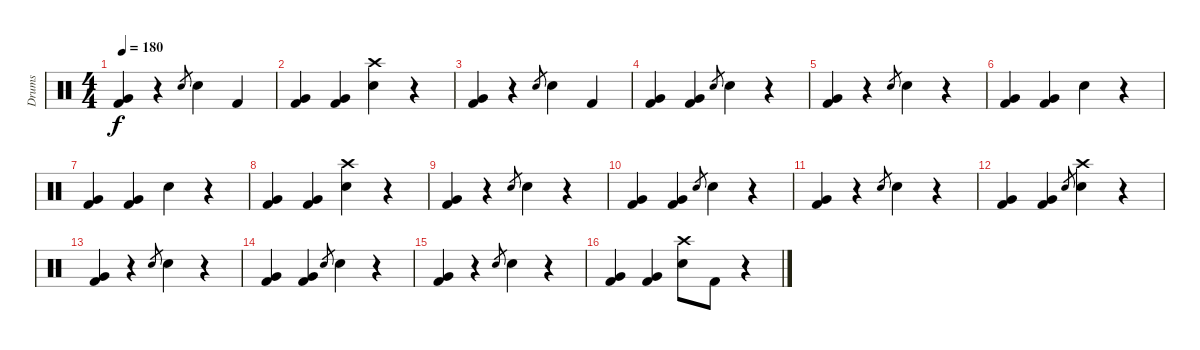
\track ("Drums" "Drums") {instrument percussion}
\staff {score}
\articulation defaults
\ts (4 4)
\tempo 180
\clef neutral
\ks c
("Very Low Tom (hit)" "Kick (hit) 2").4{dy f} r.4 "Electric Snare (hit)".8{gr} "Electric Snare (hit)".4 "Kick (hit) 2".4 |
("Very Low Tom (hit)" "Kick (hit) 2").4 ("Very Low Tom (hit)" "Kick (hit) 2").4 ("Crash high (hit)" "Electric Snare (hit)").4 r.4 |
("Very Low Tom (hit)" "Kick (hit) 2").4 r.4 "Electric Snare (hit)".8{gr} "Electric Snare (hit)".4 "Kick (hit) 2".4 |
("Very Low Tom (hit)" "Kick (hit) 2").4 ("Very Low Tom (hit)" "Kick (hit) 2").4 "Electric Snare (hit)".8{gr} "Electric Snare (hit)".4 r.4 |
("Very Low Tom (hit)" "Kick (hit) 2").4 r.4 "Electric Snare (hit)".8{gr} "Electric Snare (hit)".4 r.4 |
("Very Low Tom (hit)" "Kick (hit) 2").4 ("Very Low Tom (hit)" "Kick (hit) 2").4 "Electric Snare (hit)".4 r.4 |
("Very Low Tom (hit)" "Kick (hit) 2").4 ("Very Low Tom (hit)" "Kick (hit) 2").4 "Electric Snare (hit)".4 r.4 |
("Very Low Tom (hit)" "Kick (hit) 2").4 ("Very Low Tom (hit)" "Kick (hit) 2").4 ("Crash high (hit)" "Electric Snare (hit)").4 r.4 |
("Very Low Tom (hit)" "Kick (hit) 2").4 r.4 "Electric Snare (hit)".8{gr} "Electric Snare (hit)".4 r.4 |
("Very Low Tom (hit)" "Kick (hit) 2").4 ("Very Low Tom (hit)" "Kick (hit) 2").4 "Electric Snare (hit)".8{gr} "Electric Snare (hit)".4 r.4 |
("Very Low Tom (hit)" "Kick (hit) 2").4 r.4 "Electric Snare (hit)".8{gr} "Electric Snare (hit)".4 r.4 |
("Very Low Tom (hit)" "Kick (hit) 2").4 ("Very Low Tom (hit)" "Kick (hit) 2").4 "Electric Snare (hit)".8{gr} ("Crash high (hit)" "Electric Snare (hit)").4 r.4 |
("Very Low Tom (hit)" "Kick (hit) 2").4 r.4 "Electric Snare (hit)".8{gr} "Electric Snare (hit)".4 r.4 |
("Very Low Tom (hit)" "Kick (hit) 2").4 ("Very Low Tom (hit)" "Kick (hit) 2").4 "Electric Snare (hit)".8{gr} "Electric Snare (hit)".4 r.4 |
("Very Low Tom (hit)" "Kick (hit) 2").4 r.4 "Electric Snare (hit)".8{gr} "Electric Snare (hit)".4 r.4 |
("Very Low Tom (hit)" "Kick (hit) 2").4 ("Very Low Tom (hit)" "Kick (hit) 2").4 ("Crash high (hit)" "Electric Snare (hit)").8 "Kick (hit) 2".8 r.4
